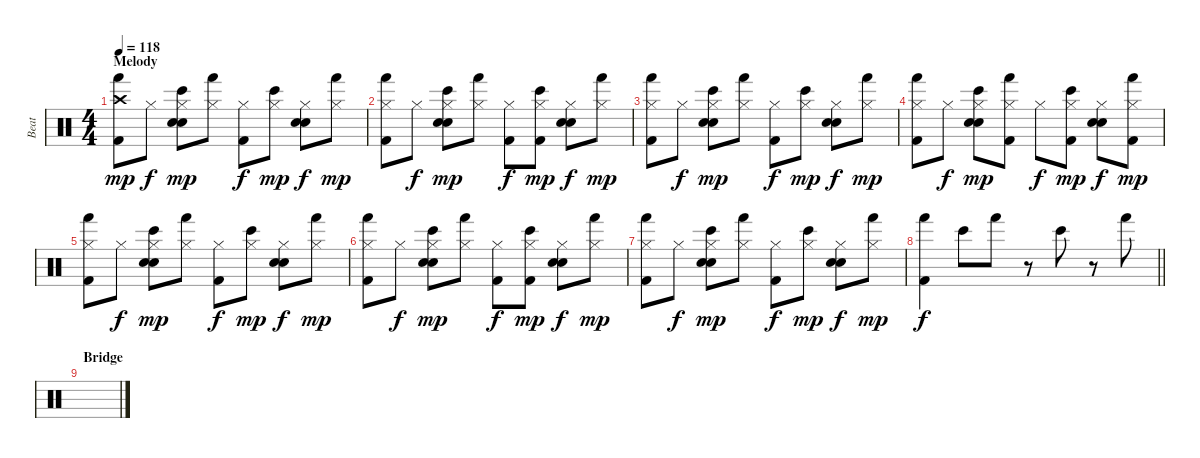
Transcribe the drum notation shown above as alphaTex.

\track ("Beat" "Beat") {instrument percussion}
\staff {score}
\articulation defaults
\ts (4 4)
\section ("" "Melody")
\tempo 118
\clef neutral
\ks c
("Crash high (hit)" "Hand (hit)" "Kick (hit) 2").8{dy mp} "Hi-Hat (closed)".8{dy f} ("Hi-Hat (closed)" "Bongo High (hit)" "Electric Snare (hit)" "Hand Clap (hit)").8{dy mp} ("Hi-Hat (closed)" "Hand (hit)").8 ("Hi-Hat (closed)" "Kick (hit) 2").8{dy f} ("Hi-Hat (closed)" "Bongo High (hit)").8{dy mp} ("Hi-Hat (closed)" "Electric Snare (hit)" "Hand Clap (hit)").8{dy f} ("Hi-Hat (closed)" "Hand (hit)").8{dy mp} |
("Hi-Hat (closed)" "Hand (hit)" "Kick (hit) 2").8 "Hi-Hat (closed)".8{dy f} ("Hi-Hat (closed)" "Bongo High (hit)" "Electric Snare (hit)" "Hand Clap (hit)").8{dy mp} ("Hi-Hat (closed)" "Hand (hit)").8 ("Hi-Hat (closed)" "Kick (hit) 2").8{dy f} ("Hi-Hat (closed)" "Bongo High (hit)" "Kick (hit) 2").8{dy mp} ("Hi-Hat (closed)" "Electric Snare (hit)" "Hand Clap (hit)").8{dy f} ("Hi-Hat (closed)" "Hand (hit)").8{dy mp} |
("Hi-Hat (closed)" "Hand (hit)" "Kick (hit) 2").8 "Hi-Hat (closed)".8{dy f} ("Hi-Hat (closed)" "Bongo High (hit)" "Electric Snare (hit)" "Hand Clap (hit)").8{dy mp} ("Hi-Hat (closed)" "Hand (hit)").8 ("Hi-Hat (closed)" "Kick (hit) 2").8{dy f} ("Hi-Hat (closed)" "Bongo High (hit)").8{dy mp} ("Hi-Hat (closed)" "Electric Snare (hit)" "Hand Clap (hit)").8{dy f} ("Hi-Hat (closed)" "Hand (hit)").8{dy mp} |
("Hi-Hat (closed)" "Hand (hit)" "Kick (hit) 2").8 "Hi-Hat (closed)".8{dy f} ("Hi-Hat (closed)" "Bongo High (hit)" "Electric Snare (hit)" "Hand Clap (hit)").8{dy mp} ("Hi-Hat (closed)" "Hand (hit)" "Kick (hit) 2").8 "Hi-Hat (closed)".8{dy f} ("Hi-Hat (closed)" "Bongo High (hit)" "Kick (hit) 2").8{dy mp} ("Hi-Hat (closed)" "Electric Snare (hit)" "Hand Clap (hit)").8{dy f} ("Hi-Hat (closed)" "Hand (hit)" "Kick (hit) 2").8{dy mp} |
("Hi-Hat (closed)" "Hand (hit)" "Kick (hit) 2").8 "Hi-Hat (closed)".8{dy f} ("Hi-Hat (closed)" "Bongo High (hit)" "Electric Snare (hit)" "Hand Clap (hit)").8{dy mp} ("Hi-Hat (closed)" "Hand (hit)").8 ("Hi-Hat (closed)" "Kick (hit) 2").8{dy f} ("Hi-Hat (closed)" "Bongo High (hit)").8{dy mp} ("Hi-Hat (closed)" "Electric Snare (hit)" "Hand Clap (hit)").8{dy f} ("Hi-Hat (closed)" "Hand (hit)").8{dy mp} |
("Hi-Hat (closed)" "Hand (hit)" "Kick (hit) 2").8 "Hi-Hat (closed)".8{dy f} ("Hi-Hat (closed)" "Bongo High (hit)" "Electric Snare (hit)" "Hand Clap (hit)").8{dy mp} ("Hi-Hat (closed)" "Hand (hit)").8 ("Hi-Hat (closed)" "Kick (hit) 2").8{dy f} ("Hi-Hat (closed)" "Bongo High (hit)" "Kick (hit) 2").8{dy mp} ("Hi-Hat (closed)" "Electric Snare (hit)" "Hand Clap (hit)").8{dy f} ("Hi-Hat (closed)" "Hand (hit)").8{dy mp} |
("Hi-Hat (closed)" "Hand (hit)" "Kick (hit) 2").8 "Hi-Hat (closed)".8{dy f} ("Hi-Hat (closed)" "Bongo High (hit)" "Electric Snare (hit)" "Hand Clap (hit)").8{dy mp} ("Hi-Hat (closed)" "Hand (hit)").8 ("Hi-Hat (closed)" "Kick (hit) 2").8{dy f} ("Hi-Hat (closed)" "Bongo High (hit)").8{dy mp} ("Hi-Hat (closed)" "Electric Snare (hit)" "Hand Clap (hit)").8{dy f} ("Hi-Hat (closed)" "Hand (hit)").8{dy mp} |
\barLineRight lightlight
("Hand (hit)" "Kick (hit) 2").4{dy f} "Bongo High (hit)".8 "Hand (hit)".8 r.8 "Bongo High (hit)".8 r.8 "Hand (hit)".8 |
\section ("" "Bridge")
